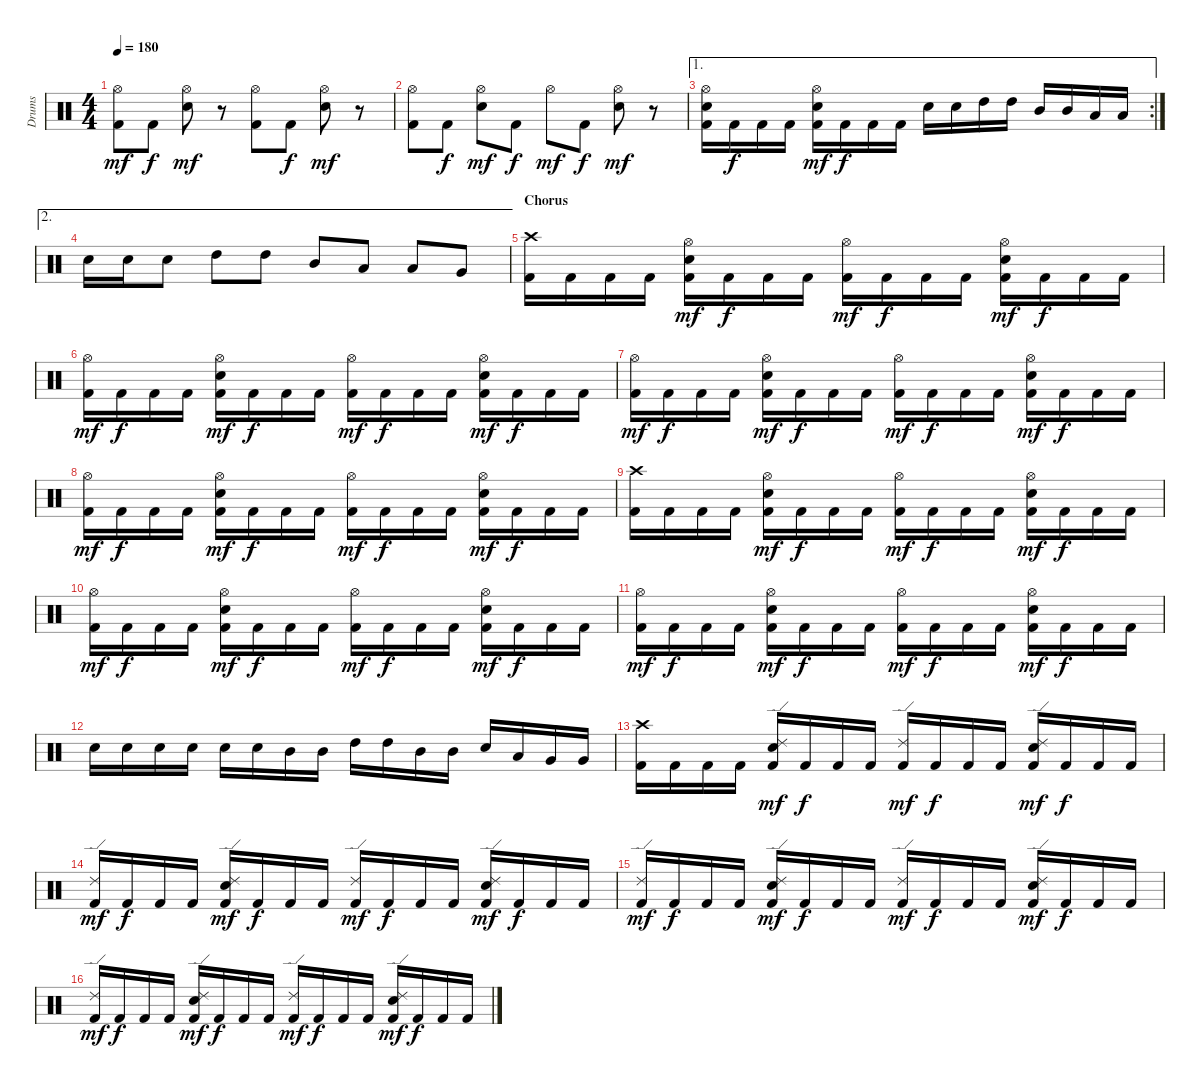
\track ("Drums" "Drums") {instrument percussion}
\staff {score}
\articulation defaults
\ts (4 4)
\tempo 180
\clef neutral
\ks c
("Hi-Hat (open)" "Kick (hit) 2").8{dy mf} "Kick (hit) 2".8{dy f} ("Hi-Hat (open)" "Snare (hit) 2").8{dy mf} r.8 ("Hi-Hat (open)" "Kick (hit) 2").8 "Kick (hit) 2".8{dy f} ("Hi-Hat (open)" "Snare (hit) 2").8{dy mf} r.8 |
("Hi-Hat (open)" "Kick (hit) 2").8 "Kick (hit) 2".8{dy f} ("Hi-Hat (open)" "Snare (hit) 2").8{dy mf} "Kick (hit) 2".8{dy f} "Hi-Hat (open)".8{dy mf} "Kick (hit) 2".8{dy f} ("Hi-Hat (open)" "Snare (hit) 2").8{dy mf} r.8 |
\ae 1
\rc 2
("Hi-Hat (open)" "Snare (hit) 2" "Kick (hit) 2").16 "Kick (hit) 2".16{dy f} "Kick (hit) 2".16 "Kick (hit) 2".16 ("Hi-Hat (open)" "Snare (hit) 2" "Kick (hit) 2").16{dy mf} "Kick (hit) 2".16{dy f} "Kick (hit) 2".16 "Kick (hit) 2".16 "Snare (hit) 2".16 "Snare (hit) 2".16 "High Tom (hit)".16 "High Tom (hit)".16 "Mid Tom (hit)".16 "Mid Tom (hit)".16 "Low Tom (hit)".16 "Low Tom (hit)".16 |
\ae 2 "Snare (hit) 2".16 "Snare (hit) 2".16 "Snare (hit) 2".8 "High Tom (hit)".8 "High Tom (hit)".8 "Mid Tom (hit)".8 "Low Tom (hit)".8 "Low Tom (hit)".8 "Very Low Tom (hit)".8
|
\section ("" "Chorus")
("Crash high (hit)" "Kick (hit) 2").16 "Kick (hit) 2".16 "Kick (hit) 2".16 "Kick (hit) 2".16 ("Hi-Hat (open)" "Snare (hit) 2" "Kick (hit) 2").16{dy mf} "Kick (hit) 2".16{dy f} "Kick (hit) 2".16 "Kick (hit) 2".16 ("Hi-Hat (open)" "Kick (hit) 2").16{dy mf} "Kick (hit) 2".16{dy f} "Kick (hit) 2".16 "Kick (hit) 2".16 ("Hi-Hat (open)" "Snare (hit) 2" "Kick (hit) 2").16{dy mf} "Kick (hit) 2".16{dy f} "Kick (hit) 2".16 "Kick (hit) 2".16 |
("Hi-Hat (open)" "Kick (hit) 2").16{dy mf} "Kick (hit) 2".16{dy f} "Kick (hit) 2".16 "Kick (hit) 2".16 ("Hi-Hat (open)" "Snare (hit) 2" "Kick (hit) 2").16{dy mf} "Kick (hit) 2".16{dy f} "Kick (hit) 2".16 "Kick (hit) 2".16 ("Hi-Hat (open)" "Kick (hit) 2").16{dy mf} "Kick (hit) 2".16{dy f} "Kick (hit) 2".16 "Kick (hit) 2".16 ("Hi-Hat (open)" "Snare (hit) 2" "Kick (hit) 2").16{dy mf} "Kick (hit) 2".16{dy f} "Kick (hit) 2".16 "Kick (hit) 2".16 |
("Hi-Hat (open)" "Kick (hit) 2").16{dy mf} "Kick (hit) 2".16{dy f} "Kick (hit) 2".16 "Kick (hit) 2".16 ("Hi-Hat (open)" "Snare (hit) 2" "Kick (hit) 2").16{dy mf} "Kick (hit) 2".16{dy f} "Kick (hit) 2".16 "Kick (hit) 2".16 ("Hi-Hat (open)" "Kick (hit) 2").16{dy mf} "Kick (hit) 2".16{dy f} "Kick (hit) 2".16 "Kick (hit) 2".16 ("Hi-Hat (open)" "Snare (hit) 2" "Kick (hit) 2").16{dy mf} "Kick (hit) 2".16{dy f} "Kick (hit) 2".16 "Kick (hit) 2".16 |
("Hi-Hat (open)" "Kick (hit) 2").16{dy mf} "Kick (hit) 2".16{dy f} "Kick (hit) 2".16 "Kick (hit) 2".16 ("Hi-Hat (open)" "Snare (hit) 2" "Kick (hit) 2").16{dy mf} "Kick (hit) 2".16{dy f} "Kick (hit) 2".16 "Kick (hit) 2".16 ("Hi-Hat (open)" "Kick (hit) 2").16{dy mf} "Kick (hit) 2".16{dy f} "Kick (hit) 2".16 "Kick (hit) 2".16 ("Hi-Hat (open)" "Snare (hit) 2" "Kick (hit) 2").16{dy mf} "Kick (hit) 2".16{dy f} "Kick (hit) 2".16 "Kick (hit) 2".16 |
("Crash high (hit)" "Kick (hit) 2").16 "Kick (hit) 2".16 "Kick (hit) 2".16 "Kick (hit) 2".16 ("Hi-Hat (open)" "Snare (hit) 2" "Kick (hit) 2").16{dy mf} "Kick (hit) 2".16{dy f} "Kick (hit) 2".16 "Kick (hit) 2".16 ("Hi-Hat (open)" "Kick (hit) 2").16{dy mf} "Kick (hit) 2".16{dy f} "Kick (hit) 2".16 "Kick (hit) 2".16 ("Hi-Hat (open)" "Snare (hit) 2" "Kick (hit) 2").16{dy mf} "Kick (hit) 2".16{dy f} "Kick (hit) 2".16 "Kick (hit) 2".16 |
("Hi-Hat (open)" "Kick (hit) 2").16{dy mf} "Kick (hit) 2".16{dy f} "Kick (hit) 2".16 "Kick (hit) 2".16 ("Hi-Hat (open)" "Snare (hit) 2" "Kick (hit) 2").16{dy mf} "Kick (hit) 2".16{dy f} "Kick (hit) 2".16 "Kick (hit) 2".16 ("Hi-Hat (open)" "Kick (hit) 2").16{dy mf} "Kick (hit) 2".16{dy f} "Kick (hit) 2".16 "Kick (hit) 2".16 ("Hi-Hat (open)" "Snare (hit) 2" "Kick (hit) 2").16{dy mf} "Kick (hit) 2".16{dy f} "Kick (hit) 2".16 "Kick (hit) 2".16 |
("Hi-Hat (open)" "Kick (hit) 2").16{dy mf} "Kick (hit) 2".16{dy f} "Kick (hit) 2".16 "Kick (hit) 2".16 ("Hi-Hat (open)" "Snare (hit) 2" "Kick (hit) 2").16{dy mf} "Kick (hit) 2".16{dy f} "Kick (hit) 2".16 "Kick (hit) 2".16 ("Hi-Hat (open)" "Kick (hit) 2").16{dy mf} "Kick (hit) 2".16{dy f} "Kick (hit) 2".16 "Kick (hit) 2".16 ("Hi-Hat (open)" "Snare (hit) 2" "Kick (hit) 2").16{dy mf} "Kick (hit) 2".16{dy f} "Kick (hit) 2".16 "Kick (hit) 2".16 |
"Snare (hit) 2".16 "Snare (hit) 2".16 "Snare (hit) 2".16 "Snare (hit) 2".16 "Snare (hit) 2".16 "Snare (hit) 2".16 "Mid Tom (hit)".16 "Mid Tom (hit)".16 "High Tom (hit)".16 "High Tom (hit)".16 "Mid Tom (hit)".16 "Mid Tom (hit)".16 "Snare (hit) 2".16 "Low Tom (hit)".16 "Very Low Tom (hit)".16 "Very Low Tom (hit)".16 |
("Crash high (hit)" "Kick (hit) 2").16 "Kick (hit) 2".16 "Kick (hit) 2".16 "Kick (hit) 2".16 ("Ride (edge) 2" "Snare (hit) 2" "Kick (hit) 2").16{dy mf} "Kick (hit) 2".16{dy f} "Kick (hit) 2".16 "Kick (hit) 2".16 ("Ride (edge) 2" "Kick (hit) 2").16{dy mf} "Kick (hit) 2".16{dy f} "Kick (hit) 2".16 "Kick (hit) 2".16 ("Ride (edge) 2" "Snare (hit) 2" "Kick (hit) 2").16{dy mf} "Kick (hit) 2".16{dy f} "Kick (hit) 2".16 "Kick (hit) 2".16 |
("Ride (edge) 2" "Kick (hit) 2").16{dy mf} "Kick (hit) 2".16{dy f} "Kick (hit) 2".16 "Kick (hit) 2".16 ("Ride (edge) 2" "Snare (hit) 2" "Kick (hit) 2").16{dy mf} "Kick (hit) 2".16{dy f} "Kick (hit) 2".16 "Kick (hit) 2".16 ("Ride (edge) 2" "Kick (hit) 2").16{dy mf} "Kick (hit) 2".16{dy f} "Kick (hit) 2".16 "Kick (hit) 2".16 ("Ride (edge) 2" "Snare (hit) 2" "Kick (hit) 2").16{dy mf} "Kick (hit) 2".16{dy f} "Kick (hit) 2".16 "Kick (hit) 2".16 |
("Ride (edge) 2" "Kick (hit) 2").16{dy mf} "Kick (hit) 2".16{dy f} "Kick (hit) 2".16 "Kick (hit) 2".16 ("Ride (edge) 2" "Snare (hit) 2" "Kick (hit) 2").16{dy mf} "Kick (hit) 2".16{dy f} "Kick (hit) 2".16 "Kick (hit) 2".16 ("Ride (edge) 2" "Kick (hit) 2").16{dy mf} "Kick (hit) 2".16{dy f} "Kick (hit) 2".16 "Kick (hit) 2".16 ("Ride (edge) 2" "Snare (hit) 2" "Kick (hit) 2").16{dy mf} "Kick (hit) 2".16{dy f} "Kick (hit) 2".16 "Kick (hit) 2".16 |
("Ride (edge) 2" "Kick (hit) 2").16{dy mf} "Kick (hit) 2".16{dy f} "Kick (hit) 2".16 "Kick (hit) 2".16 ("Ride (edge) 2" "Snare (hit) 2" "Kick (hit) 2").16{dy mf} "Kick (hit) 2".16{dy f} "Kick (hit) 2".16 "Kick (hit) 2".16 ("Ride (edge) 2" "Kick (hit) 2").16{dy mf} "Kick (hit) 2".16{dy f} "Kick (hit) 2".16 "Kick (hit) 2".16 ("Ride (edge) 2" "Snare (hit) 2" "Kick (hit) 2").16{dy mf} "Kick (hit) 2".16{dy f} "Kick (hit) 2".16 "Kick (hit) 2".16
